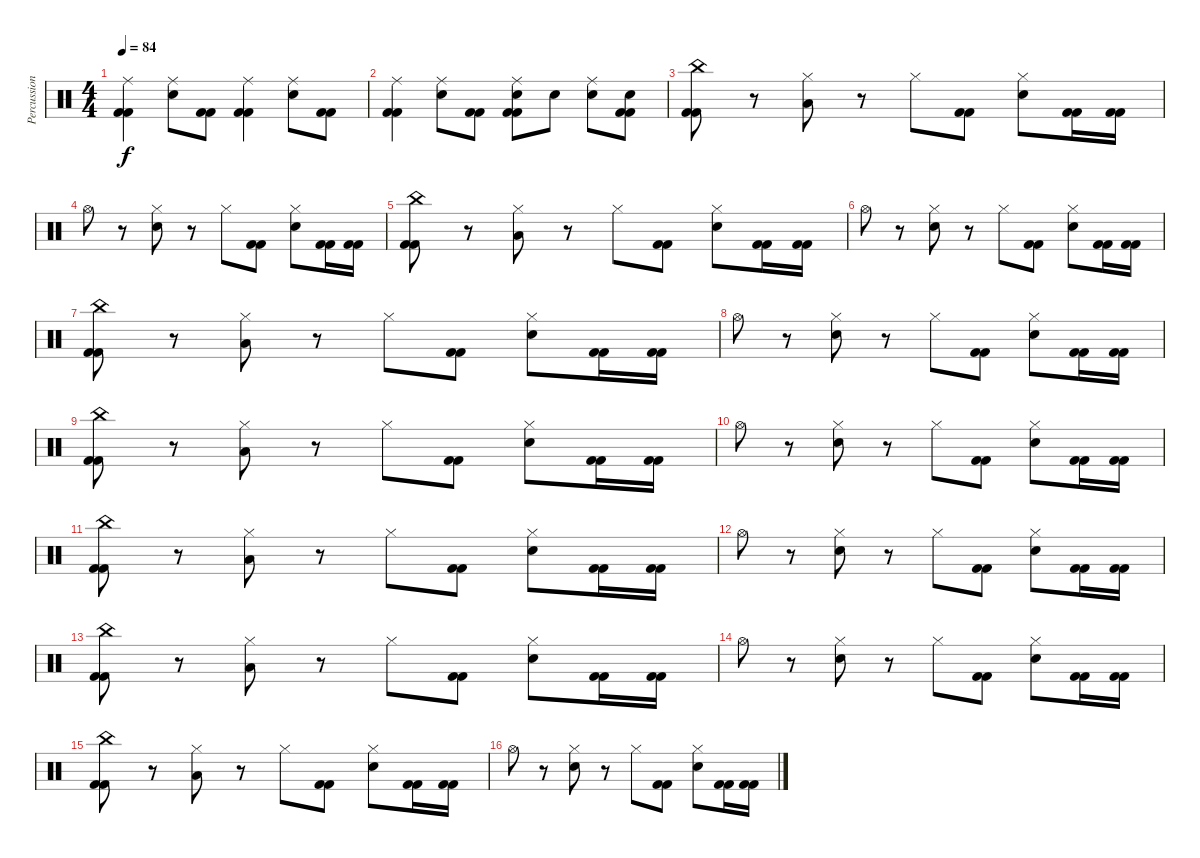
\track ("Percussion" "Percussion") {instrument percussion}
\staff {score}
\articulation defaults
\ts (4 4)
\tempo 84
\clef neutral
\ks c
("Ride (middle)" "Kick (hit) 2" "Kick (hit) 2").4{dy f} ("Ride (middle)" "Electric Snare (hit)").8 ("Kick (hit) 2" "Kick (hit) 2").8 ("Ride (middle)" "Kick (hit) 2" "Kick (hit) 2").4 ("Ride (middle)" "Electric Snare (hit)").8 ("Kick (hit) 2" "Kick (hit) 2").8 |
("Ride (middle)" "Kick (hit) 2" "Kick (hit) 2").4 ("Ride (middle)" "Electric Snare (hit)").8 ("Kick (hit) 2" "Kick (hit) 2").8 ("Ride (middle)" "Electric Snare (hit)" "Kick (hit) 2" "Kick (hit) 2").8 "Electric Snare (hit)".8 ("Ride (middle)" "Electric Snare (hit)").8 ("Electric Snare (hit)" "Kick (hit) 2" "Kick (hit) 2").8 |
("China (hit)" "Kick (hit) 2" "Kick (hit) 2").8 r.8 ("Hi-Hat (closed)" "Low Tom (hit)").8 r.8 "Hi-Hat (closed)".8 ("Kick (hit) 2" "Kick (hit) 2").8 ("Hi-Hat (closed)" "Electric Snare (hit)").8 ("Kick (hit) 2" "Kick (hit) 2").16 ("Kick (hit) 2" "Kick (hit) 2").16 |
"Hi-Hat (open)".8 r.8 ("Hi-Hat (closed)" "Electric Snare (hit)").8 r.8 "Hi-Hat (closed)".8 ("Kick (hit) 2" "Kick (hit) 2").8 ("Hi-Hat (closed)" "Electric Snare (hit)").8 ("Kick (hit) 2" "Kick (hit) 2").16 ("Kick (hit) 2" "Kick (hit) 2").16 |
("China (hit)" "Kick (hit) 2" "Kick (hit) 2").8 r.8 ("Hi-Hat (closed)" "Low Tom (hit)").8 r.8 "Hi-Hat (closed)".8 ("Kick (hit) 2" "Kick (hit) 2").8 ("Hi-Hat (closed)" "Electric Snare (hit)").8 ("Kick (hit) 2" "Kick (hit) 2").16 ("Kick (hit) 2" "Kick (hit) 2").16 |
"Hi-Hat (open)".8 r.8 ("Hi-Hat (closed)" "Electric Snare (hit)").8 r.8 "Hi-Hat (closed)".8 ("Kick (hit) 2" "Kick (hit) 2").8 ("Hi-Hat (closed)" "Electric Snare (hit)").8 ("Kick (hit) 2" "Kick (hit) 2").16 ("Kick (hit) 2" "Kick (hit) 2").16 |
("China (hit)" "Kick (hit) 2" "Kick (hit) 2").8 r.8 ("Hi-Hat (closed)" "Low Tom (hit)").8 r.8 "Hi-Hat (closed)".8 ("Kick (hit) 2" "Kick (hit) 2").8 ("Hi-Hat (closed)" "Electric Snare (hit)").8 ("Kick (hit) 2" "Kick (hit) 2").16 ("Kick (hit) 2" "Kick (hit) 2").16 |
"Hi-Hat (open)".8 r.8 ("Hi-Hat (closed)" "Electric Snare (hit)").8 r.8 "Hi-Hat (closed)".8 ("Kick (hit) 2" "Kick (hit) 2").8 ("Hi-Hat (closed)" "Electric Snare (hit)").8 ("Kick (hit) 2" "Kick (hit) 2").16 ("Kick (hit) 2" "Kick (hit) 2").16 |
("China (hit)" "Kick (hit) 2" "Kick (hit) 2").8 r.8 ("Hi-Hat (closed)" "Low Tom (hit)").8 r.8 "Hi-Hat (closed)".8 ("Kick (hit) 2" "Kick (hit) 2").8 ("Hi-Hat (closed)" "Electric Snare (hit)").8 ("Kick (hit) 2" "Kick (hit) 2").16 ("Kick (hit) 2" "Kick (hit) 2").16 |
"Hi-Hat (open)".8 r.8 ("Hi-Hat (closed)" "Electric Snare (hit)").8 r.8 "Hi-Hat (closed)".8 ("Kick (hit) 2" "Kick (hit) 2").8 ("Hi-Hat (closed)" "Electric Snare (hit)").8 ("Kick (hit) 2" "Kick (hit) 2").16 ("Kick (hit) 2" "Kick (hit) 2").16 |
("China (hit)" "Kick (hit) 2" "Kick (hit) 2").8 r.8 ("Hi-Hat (closed)" "Low Tom (hit)").8 r.8 "Hi-Hat (closed)".8 ("Kick (hit) 2" "Kick (hit) 2").8 ("Hi-Hat (closed)" "Electric Snare (hit)").8 ("Kick (hit) 2" "Kick (hit) 2").16 ("Kick (hit) 2" "Kick (hit) 2").16 |
"Hi-Hat (open)".8 r.8 ("Hi-Hat (closed)" "Electric Snare (hit)").8 r.8 "Hi-Hat (closed)".8 ("Kick (hit) 2" "Kick (hit) 2").8 ("Hi-Hat (closed)" "Electric Snare (hit)").8 ("Kick (hit) 2" "Kick (hit) 2").16 ("Kick (hit) 2" "Kick (hit) 2").16 |
("China (hit)" "Kick (hit) 2" "Kick (hit) 2").8 r.8 ("Hi-Hat (closed)" "Low Tom (hit)").8 r.8 "Hi-Hat (closed)".8 ("Kick (hit) 2" "Kick (hit) 2").8 ("Hi-Hat (closed)" "Electric Snare (hit)").8 ("Kick (hit) 2" "Kick (hit) 2").16 ("Kick (hit) 2" "Kick (hit) 2").16 |
"Hi-Hat (open)".8 r.8 ("Hi-Hat (closed)" "Electric Snare (hit)").8 r.8 "Hi-Hat (closed)".8 ("Kick (hit) 2" "Kick (hit) 2").8 ("Hi-Hat (closed)" "Electric Snare (hit)").8 ("Kick (hit) 2" "Kick (hit) 2").16 ("Kick (hit) 2" "Kick (hit) 2").16 |
("China (hit)" "Kick (hit) 2" "Kick (hit) 2").8 r.8 ("Hi-Hat (closed)" "Low Tom (hit)").8 r.8 "Hi-Hat (closed)".8 ("Kick (hit) 2" "Kick (hit) 2").8 ("Hi-Hat (closed)" "Electric Snare (hit)").8 ("Kick (hit) 2" "Kick (hit) 2").16 ("Kick (hit) 2" "Kick (hit) 2").16 |
"Hi-Hat (open)".8 r.8 ("Hi-Hat (closed)" "Electric Snare (hit)").8 r.8 "Hi-Hat (closed)".8 ("Kick (hit) 2" "Kick (hit) 2").8 ("Hi-Hat (closed)" "Electric Snare (hit)").8 ("Kick (hit) 2" "Kick (hit) 2").16 ("Kick (hit) 2" "Kick (hit) 2").16
